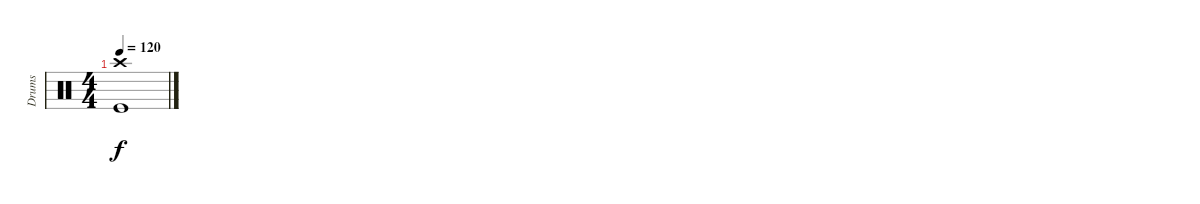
\track ("Drums" "Drums") {instrument percussion}
\staff {score}
\articulation defaults
\ts (4 4)
\tempo 120
\clef neutral
\ks c
("Crash high (hit)" "Kick (hit)").1{dy f}
